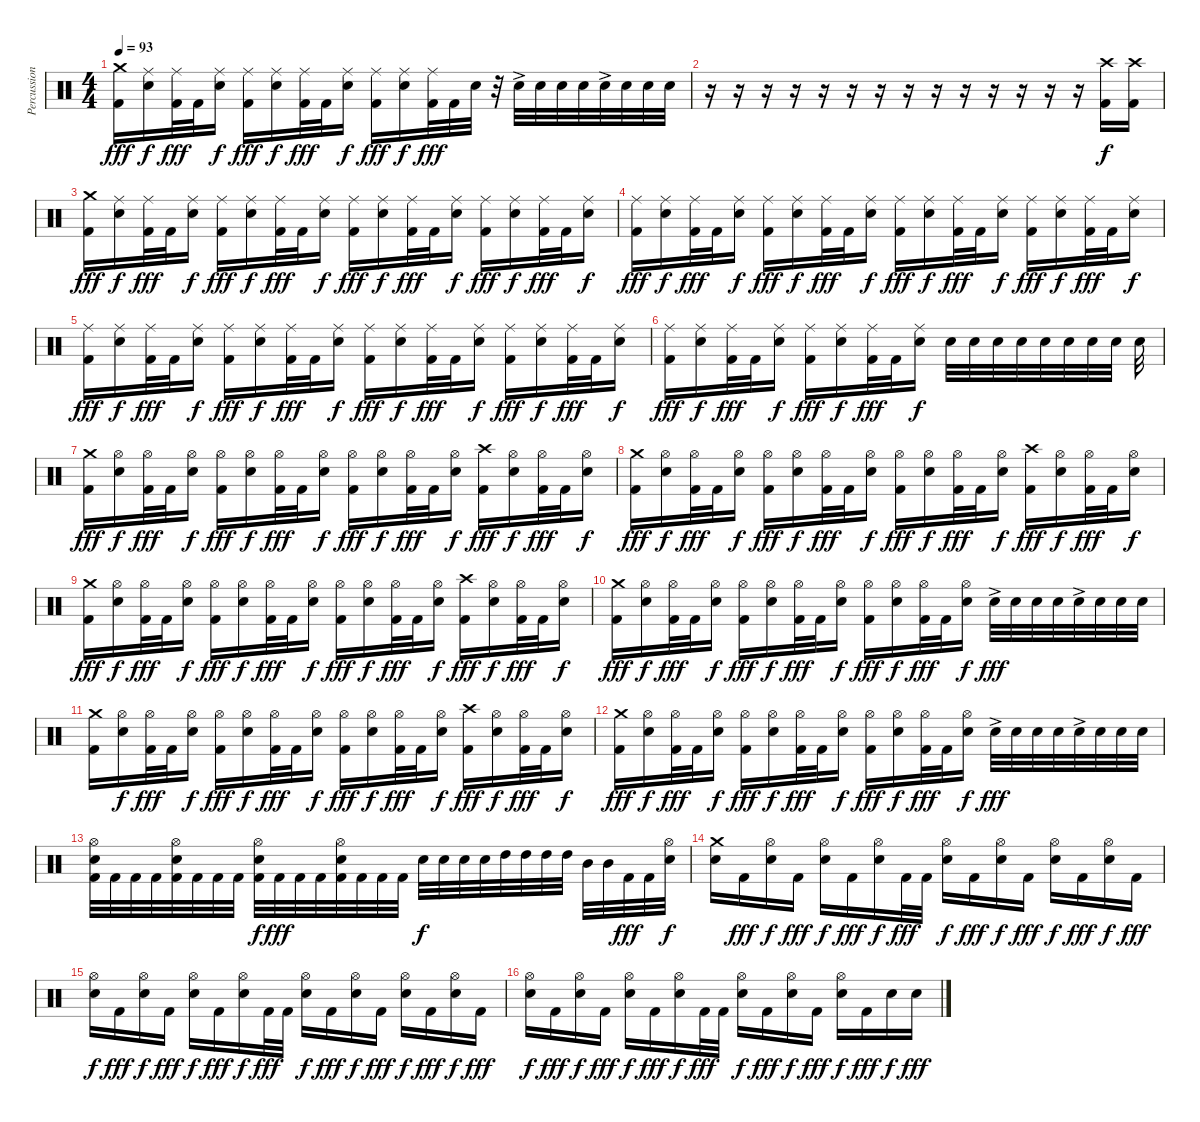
\track ("Percussion" "Percussion") {instrument percussion}
\staff {score}
\articulation defaults
\ts (4 4)
\tempo 93
\clef neutral
\ks c
("Crash medium (hit)" "Kick (hit) 2").16{dy fff} ("Ride (middle)" "Snare (hit) 2").16{dy f} ("Ride (middle)" "Kick (hit) 2").32{dy fff} "Kick (hit) 2".32 ("Ride (middle)" "Snare (hit) 2").16{dy f} ("Ride (middle)" "Kick (hit) 2").16{dy fff} ("Ride (middle)" "Snare (hit) 2").16{dy f} ("Ride (middle)" "Kick (hit) 2").32{dy fff} "Kick (hit) 2".32 ("Ride (middle)" "Snare (hit) 2").16{dy f} ("Ride (middle)" "Kick (hit) 2").16{dy fff} ("Ride (middle)" "Snare (hit) 2").16{dy f} ("Ride (middle)" "Kick (hit) 2").32{dy fff} "Kick (hit) 2".32 "Snare (hit) 2".32 r.32 "Snare (hit) 2"{ac}.32 "Snare (hit) 2".32 "Snare (hit) 2".32 "Snare (hit) 2".32 "Snare (hit) 2"{ac}.32 "Snare (hit) 2".32 "Snare (hit) 2".32 "Snare (hit) 2".32 |
r.16 r.16 r.16 r.16 r.16 r.16 r.16 r.16 r.16 r.16 r.16 r.16 r.16 r.16 ("Crash high (hit)" "Kick (hit) 2").16{dy f} ("Crash high (hit)" "Kick (hit) 2").16 |
("Crash medium (hit)" "Kick (hit) 2").16{dy fff} ("Ride (middle)" "Snare (hit) 2").16{dy f} ("Ride (middle)" "Kick (hit) 2").32{dy fff} "Kick (hit) 2".32 ("Ride (middle)" "Snare (hit) 2").16{dy f} ("Ride (middle)" "Kick (hit) 2").16{dy fff} ("Ride (middle)" "Snare (hit) 2").16{dy f} ("Ride (middle)" "Kick (hit) 2").32{dy fff} "Kick (hit) 2".32 ("Ride (middle)" "Snare (hit) 2").16{dy f} ("Ride (middle)" "Kick (hit) 2").16{dy fff} ("Ride (middle)" "Snare (hit) 2").16{dy f} ("Ride (middle)" "Kick (hit) 2").32{dy fff} "Kick (hit) 2".32 ("Ride (middle)" "Snare (hit) 2").16{dy f} ("Ride (middle)" "Kick (hit) 2").16{dy fff} ("Ride (middle)" "Snare (hit) 2").16{dy f} ("Ride (middle)" "Kick (hit) 2").32{dy fff} "Kick (hit) 2".32 ("Ride (middle)" "Snare (hit) 2").16{dy f} |
("Ride (middle)" "Kick (hit) 2").16{dy fff} ("Ride (middle)" "Snare (hit) 2").16{dy f} ("Ride (middle)" "Kick (hit) 2").32{dy fff} "Kick (hit) 2".32 ("Ride (middle)" "Snare (hit) 2").16{dy f} ("Ride (middle)" "Kick (hit) 2").16{dy fff} ("Ride (middle)" "Snare (hit) 2").16{dy f} ("Ride (middle)" "Kick (hit) 2").32{dy fff} "Kick (hit) 2".32 ("Ride (middle)" "Snare (hit) 2").16{dy f} ("Ride (middle)" "Kick (hit) 2").16{dy fff} ("Ride (middle)" "Snare (hit) 2").16{dy f} ("Ride (middle)" "Kick (hit) 2").32{dy fff} "Kick (hit) 2".32 ("Ride (middle)" "Snare (hit) 2").16{dy f} ("Ride (middle)" "Kick (hit) 2").16{dy fff} ("Ride (middle)" "Snare (hit) 2").16{dy f} ("Ride (middle)" "Kick (hit) 2").32{dy fff} "Kick (hit) 2".32 ("Ride (middle)" "Snare (hit) 2").16{dy f} |
("Ride (middle)" "Kick (hit) 2").16{dy fff} ("Ride (middle)" "Snare (hit) 2").16{dy f} ("Ride (middle)" "Kick (hit) 2").32{dy fff} "Kick (hit) 2".32 ("Ride (middle)" "Snare (hit) 2").16{dy f} ("Ride (middle)" "Kick (hit) 2").16{dy fff} ("Ride (middle)" "Snare (hit) 2").16{dy f} ("Ride (middle)" "Kick (hit) 2").32{dy fff} "Kick (hit) 2".32 ("Ride (middle)" "Snare (hit) 2").16{dy f} ("Ride (middle)" "Kick (hit) 2").16{dy fff} ("Ride (middle)" "Snare (hit) 2").16{dy f} ("Ride (middle)" "Kick (hit) 2").32{dy fff} "Kick (hit) 2".32 ("Ride (middle)" "Snare (hit) 2").16{dy f} ("Ride (middle)" "Kick (hit) 2").16{dy fff} ("Ride (middle)" "Snare (hit) 2").16{dy f} ("Ride (middle)" "Kick (hit) 2").32{dy fff} "Kick (hit) 2".32 ("Ride (middle)" "Snare (hit) 2").16{dy f} |
("Ride (middle)" "Kick (hit) 2").16{dy fff} ("Ride (middle)" "Snare (hit) 2").16{dy f} ("Ride (middle)" "Kick (hit) 2").32{dy fff} "Kick (hit) 2".32 ("Ride (middle)" "Snare (hit) 2").16{dy f} ("Ride (middle)" "Kick (hit) 2").16{dy fff} ("Ride (middle)" "Snare (hit) 2").16{dy f} ("Ride (middle)" "Kick (hit) 2").32{dy fff} "Kick (hit) 2".32 ("Ride (middle)" "Snare (hit) 2").16{dy f} "Snare (hit) 2".32 "Snare (hit) 2".32 "Snare (hit) 2".32 "Snare (hit) 2".32 "Snare (hit) 2".32 "Snare (hit) 2".32 "Snare (hit) 2".32 "Snare (hit) 2".32 "Snare (hit) 2".32 |
("Crash medium (hit)" "Kick (hit) 2").16{dy fff} ("Hi-Hat (open)" "Snare (hit) 2").16{dy f} ("Hi-Hat (open)" "Kick (hit) 2").32{dy fff} "Kick (hit) 2".32 ("Hi-Hat (open)" "Snare (hit) 2").16{dy f} ("Hi-Hat (open)" "Kick (hit) 2").16{dy fff} ("Hi-Hat (open)" "Snare (hit) 2").16{dy f} ("Hi-Hat (open)" "Kick (hit) 2").32{dy fff} "Kick (hit) 2".32 ("Hi-Hat (open)" "Snare (hit) 2").16{dy f} ("Hi-Hat (open)" "Kick (hit) 2").16{dy fff} ("Hi-Hat (open)" "Snare (hit) 2").16{dy f} ("Hi-Hat (open)" "Kick (hit) 2").32{dy fff} "Kick (hit) 2".32 ("Hi-Hat (open)" "Snare (hit) 2").16{dy f} ("Crash high (hit)" "Kick (hit) 2").16{dy fff} ("Hi-Hat (open)" "Snare (hit) 2").16{dy f} ("Hi-Hat (open)" "Kick (hit) 2").32{dy fff} "Kick (hit) 2".32 ("Hi-Hat (open)" "Snare (hit) 2").16{dy f} |
("Crash medium (hit)" "Kick (hit) 2").16{dy fff} ("Hi-Hat (open)" "Snare (hit) 2").16{dy f} ("Hi-Hat (open)" "Kick (hit) 2").32{dy fff} "Kick (hit) 2".32 ("Hi-Hat (open)" "Snare (hit) 2").16{dy f} ("Hi-Hat (open)" "Kick (hit) 2").16{dy fff} ("Hi-Hat (open)" "Snare (hit) 2").16{dy f} ("Hi-Hat (open)" "Kick (hit) 2").32{dy fff} "Kick (hit) 2".32 ("Hi-Hat (open)" "Snare (hit) 2").16{dy f} ("Hi-Hat (open)" "Kick (hit) 2").16{dy fff} ("Hi-Hat (open)" "Snare (hit) 2").16{dy f} ("Hi-Hat (open)" "Kick (hit) 2").32{dy fff} "Kick (hit) 2".32 ("Hi-Hat (open)" "Snare (hit) 2").16{dy f} ("Crash high (hit)" "Kick (hit) 2").16{dy fff} ("Hi-Hat (open)" "Snare (hit) 2").16{dy f} ("Hi-Hat (open)" "Kick (hit) 2").32{dy fff} "Kick (hit) 2".32 ("Hi-Hat (open)" "Snare (hit) 2").16{dy f} |
("Crash medium (hit)" "Kick (hit) 2").16{dy fff} ("Hi-Hat (open)" "Snare (hit) 2").16{dy f} ("Hi-Hat (open)" "Kick (hit) 2").32{dy fff} "Kick (hit) 2".32 ("Hi-Hat (open)" "Snare (hit) 2").16{dy f} ("Hi-Hat (open)" "Kick (hit) 2").16{dy fff} ("Hi-Hat (open)" "Snare (hit) 2").16{dy f} ("Hi-Hat (open)" "Kick (hit) 2").32{dy fff} "Kick (hit) 2".32 ("Hi-Hat (open)" "Snare (hit) 2").16{dy f} ("Hi-Hat (open)" "Kick (hit) 2").16{dy fff} ("Hi-Hat (open)" "Snare (hit) 2").16{dy f} ("Hi-Hat (open)" "Kick (hit) 2").32{dy fff} "Kick (hit) 2".32 ("Hi-Hat (open)" "Snare (hit) 2").16{dy f} ("Crash high (hit)" "Kick (hit) 2").16{dy fff} ("Hi-Hat (open)" "Snare (hit) 2").16{dy f} ("Hi-Hat (open)" "Kick (hit) 2").32{dy fff} "Kick (hit) 2".32 ("Hi-Hat (open)" "Snare (hit) 2").16{dy f} |
("Crash medium (hit)" "Kick (hit) 2").16{dy fff} ("Hi-Hat (open)" "Snare (hit) 2").16{dy f} ("Hi-Hat (open)" "Kick (hit) 2").32{dy fff} "Kick (hit) 2".32 ("Hi-Hat (open)" "Snare (hit) 2").16{dy f} ("Hi-Hat (open)" "Kick (hit) 2").16{dy fff} ("Hi-Hat (open)" "Snare (hit) 2").16{dy f} ("Hi-Hat (open)" "Kick (hit) 2").32{dy fff} "Kick (hit) 2".32 ("Hi-Hat (open)" "Snare (hit) 2").16{dy f} ("Hi-Hat (open)" "Kick (hit) 2").16{dy fff} ("Hi-Hat (open)" "Snare (hit) 2").16{dy f} ("Hi-Hat (open)" "Kick (hit) 2").32{dy fff} "Kick (hit) 2".32 ("Hi-Hat (open)" "Snare (hit) 2").16{dy f} "Snare (hit) 2"{ac}.32{dy fff} "Snare (hit) 2".32 "Snare (hit) 2".32 "Snare (hit) 2".32 "Snare (hit) 2"{ac}.32 "Snare (hit) 2".32 "Snare (hit) 2".32 "Snare (hit) 2".32 |
("Crash medium (hit)" "Kick (hit) 2").16 ("Hi-Hat (open)" "Snare (hit) 2").16{dy f} ("Hi-Hat (open)" "Kick (hit) 2").32{dy fff} "Kick (hit) 2".32 ("Hi-Hat (open)" "Snare (hit) 2").16{dy f} ("Hi-Hat (open)" "Kick (hit) 2").16{dy fff} ("Hi-Hat (open)" "Snare (hit) 2").16{dy f} ("Hi-Hat (open)" "Kick (hit) 2").32{dy fff} "Kick (hit) 2".32 ("Hi-Hat (open)" "Snare (hit) 2").16{dy f} ("Hi-Hat (open)" "Kick (hit) 2").16{dy fff} ("Hi-Hat (open)" "Snare (hit) 2").16{dy f} ("Hi-Hat (open)" "Kick (hit) 2").32{dy fff} "Kick (hit) 2".32 ("Hi-Hat (open)" "Snare (hit) 2").16{dy f} ("Crash high (hit)" "Kick (hit) 2").16{dy fff} ("Hi-Hat (open)" "Snare (hit) 2").16{dy f} ("Hi-Hat (open)" "Kick (hit) 2").32{dy fff} "Kick (hit) 2".32 ("Hi-Hat (open)" "Snare (hit) 2").16{dy f} |
("Crash medium (hit)" "Kick (hit) 2").16{dy fff} ("Hi-Hat (open)" "Snare (hit) 2").16{dy f} ("Hi-Hat (open)" "Kick (hit) 2").32{dy fff} "Kick (hit) 2".32 ("Hi-Hat (open)" "Snare (hit) 2").16{dy f} ("Hi-Hat (open)" "Kick (hit) 2").16{dy fff} ("Hi-Hat (open)" "Snare (hit) 2").16{dy f} ("Hi-Hat (open)" "Kick (hit) 2").32{dy fff} "Kick (hit) 2".32 ("Hi-Hat (open)" "Snare (hit) 2").16{dy f} ("Hi-Hat (open)" "Kick (hit) 2").16{dy fff} ("Hi-Hat (open)" "Snare (hit) 2").16{dy f} ("Hi-Hat (open)" "Kick (hit) 2").32{dy fff} "Kick (hit) 2".32 ("Hi-Hat (open)" "Snare (hit) 2").16{dy f} "Snare (hit) 2"{ac}.32{dy fff} "Snare (hit) 2".32 "Snare (hit) 2".32 "Snare (hit) 2".32 "Snare (hit) 2"{ac}.32 "Snare (hit) 2".32 "Snare (hit) 2".32 "Snare (hit) 2".32 |
("Hi-Hat (open)" "Kick (hit) 2" "Snare (hit) 2").32 "Kick (hit) 2".32 "Kick (hit) 2".32 "Kick (hit) 2".32 ("Hi-Hat (open)" "Kick (hit) 2" "Snare (hit) 2").32 "Kick (hit) 2".32 "Kick (hit) 2".32 "Kick (hit) 2".32 ("Hi-Hat (open)" "Kick (hit) 2" "Snare (hit) 2").32{dy f} "Kick (hit) 2".32{dy fff} "Kick (hit) 2".32 "Kick (hit) 2".32 ("Hi-Hat (open)" "Kick (hit) 2" "Snare (hit) 2").32 "Kick (hit) 2".32 "Kick (hit) 2".32 "Kick (hit) 2".32 "Snare (hit) 2".32{dy f} "Snare (hit) 2".32 "Snare (hit) 2".32 "Snare (hit) 2".32 "High Tom (hit)".32 "High Tom (hit)".32 "High Tom (hit)".32 "High Tom (hit)".32 "Mid Tom (hit)".32 "Mid Tom (hit)".32 "Kick (hit) 2".32{dy fff} "Kick (hit) 2".32 ("Hi-Hat (open)" "Snare (hit) 2").32{dy f} |
("Crash medium (hit)" "Snare (hit) 2").16 "Kick (hit) 2".16{dy fff} ("Hi-Hat (open)" "Snare (hit) 2").16{dy f} "Kick (hit) 2".16{dy fff} ("Hi-Hat (open)" "Snare (hit) 2").16{dy f} "Kick (hit) 2".16{dy fff} ("Hi-Hat (open)" "Snare (hit) 2").16{dy f} "Kick (hit) 2".32{dy fff} "Kick (hit) 2".32 ("Hi-Hat (open)" "Snare (hit) 2").16{dy f} "Kick (hit) 2".16{dy fff} ("Hi-Hat (open)" "Snare (hit) 2").16{dy f} "Kick (hit) 2".16{dy fff} ("Hi-Hat (open)" "Snare (hit) 2").16{dy f} "Kick (hit) 2".16{dy fff} ("Hi-Hat (open)" "Snare (hit) 2").16{dy f} "Kick (hit) 2".16{dy fff} |
("Hi-Hat (open)" "Snare (hit) 2").16{dy f} "Kick (hit) 2".16{dy fff} ("Hi-Hat (open)" "Snare (hit) 2").16{dy f} "Kick (hit) 2".16{dy fff} ("Hi-Hat (open)" "Snare (hit) 2").16{dy f} "Kick (hit) 2".16{dy fff} ("Hi-Hat (open)" "Snare (hit) 2").16{dy f} "Kick (hit) 2".32{dy fff} "Kick (hit) 2".32 ("Hi-Hat (open)" "Snare (hit) 2").16{dy f} "Kick (hit) 2".16{dy fff} ("Hi-Hat (open)" "Snare (hit) 2").16{dy f} "Kick (hit) 2".16{dy fff} ("Hi-Hat (open)" "Snare (hit) 2").16{dy f} "Kick (hit) 2".16{dy fff} ("Hi-Hat (open)" "Snare (hit) 2").16{dy f} "Kick (hit) 2".16{dy fff} |
("Hi-Hat (open)" "Snare (hit) 2").16{dy f} "Kick (hit) 2".16{dy fff} ("Hi-Hat (open)" "Snare (hit) 2").16{dy f} "Kick (hit) 2".16{dy fff} ("Hi-Hat (open)" "Snare (hit) 2").16{dy f} "Kick (hit) 2".16{dy fff} ("Hi-Hat (open)" "Snare (hit) 2").16{dy f} "Kick (hit) 2".32{dy fff} "Kick (hit) 2".32 ("Hi-Hat (open)" "Snare (hit) 2").16{dy f} "Kick (hit) 2".16{dy fff} ("Hi-Hat (open)" "Snare (hit) 2").16{dy f} "Kick (hit) 2".16{dy fff} ("Hi-Hat (open)" "Snare (hit) 2").16{dy f} "Kick (hit) 2".16{dy fff} "Snare (hit) 2".16{dy f} "Snare (hit) 2".16{dy fff}
